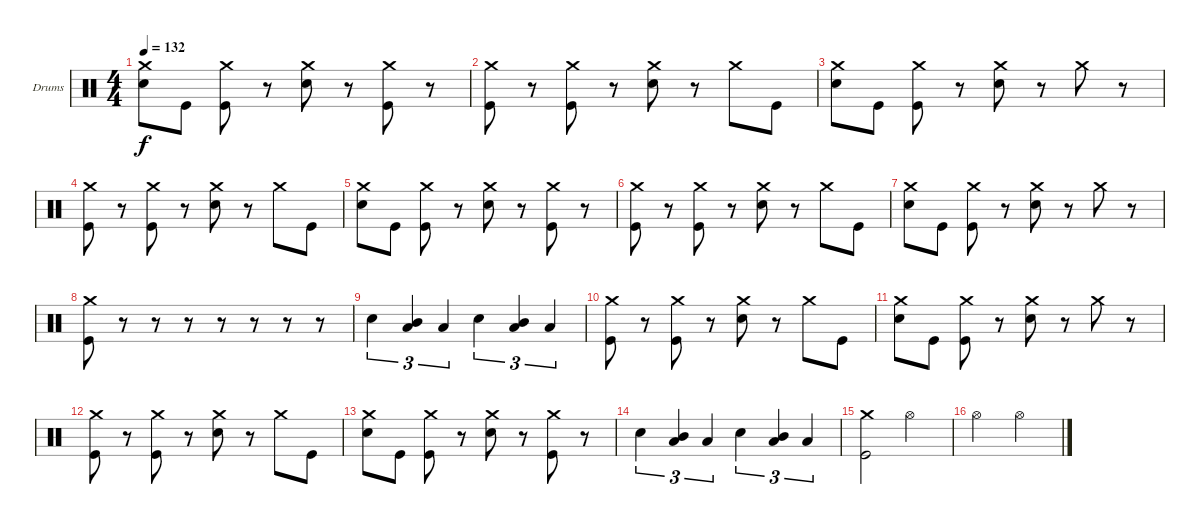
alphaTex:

\bracketExtendMode groupsimilarinstruments
\firstSystemTrackNameOrientation horizontal
\otherSystemsTrackNameOrientation horizontal
\track ("Drumkit" "Drums") {instrument percussion}
\staff {score}
\articulation defaults
\ts (4 4)
\tempo 132
\clef neutral
\ks c
("Snare (hit) 2" "Crash medium (hit)").8{dy f} "Kick (hit)".8 ("Kick (hit)" "Crash medium (hit)").8 r.8 ("Snare (hit) 2" "Crash medium (hit)").8 r.8 ("Kick (hit)" "Crash medium (hit)").8 r.8 |
("Kick (hit)" "Crash medium (hit)").8 r.8 ("Kick (hit)" "Crash medium (hit)").8 r.8 ("Snare (hit) 2" "Crash medium (hit)").8 r.8 "Crash medium (hit)".8 "Kick (hit)".8 |
("Snare (hit) 2" "Crash medium (hit)").8 "Kick (hit)".8 ("Kick (hit)" "Crash medium (hit)").8 r.8 ("Snare (hit) 2" "Crash medium (hit)").8 r.8 "Crash medium (hit)".8 r.8 |
("Kick (hit)" "Crash medium (hit)").8 r.8 ("Kick (hit)" "Crash medium (hit)").8 r.8 ("Snare (hit) 2" "Crash medium (hit)").8 r.8 "Crash medium (hit)".8 "Kick (hit)".8 |
("Snare (hit) 2" "Crash medium (hit)").8 "Kick (hit)".8 ("Kick (hit)" "Crash medium (hit)").8 r.8 ("Snare (hit) 2" "Crash medium (hit)").8 r.8 ("Kick (hit)" "Crash medium (hit)").8 r.8 |
("Kick (hit)" "Crash medium (hit)").8 r.8 ("Kick (hit)" "Crash medium (hit)").8 r.8 ("Snare (hit) 2" "Crash medium (hit)").8 r.8 "Crash medium (hit)".8 "Kick (hit)".8 |
("Snare (hit) 2" "Crash medium (hit)").8 "Kick (hit)".8 ("Kick (hit)" "Crash medium (hit)").8 r.8 ("Snare (hit) 2" "Crash medium (hit)").8 r.8 "Crash medium (hit)".8 r.8 |
("Kick (hit)" "Crash medium (hit)").8 r.8 r.8 r.8 r.8 r.8 r.8 r.8 |
"Snare (hit) 2".4{tu (3 2)} ("Low Tom (hit)" "Mid Tom (hit)").4{tu (3 2)} "Low Tom (hit)".4{tu (3 2)} "Snare (hit) 2".4{tu (3 2)} ("Low Tom (hit)" "Mid Tom (hit)").4{tu (3 2)} "Low Tom (hit)".4{tu (3 2)} |
("Kick (hit)" "Crash medium (hit)").8 r.8 ("Kick (hit)" "Crash medium (hit)").8 r.8 ("Snare (hit) 2" "Crash medium (hit)").8 r.8 "Crash medium (hit)".8 "Kick (hit)".8 |
("Snare (hit) 2" "Crash medium (hit)").8 "Kick (hit)".8 ("Kick (hit)" "Crash medium (hit)").8 r.8 ("Snare (hit) 2" "Crash medium (hit)").8 r.8 "Crash medium (hit)".8 r.8 |
("Kick (hit)" "Crash medium (hit)").8 r.8 ("Kick (hit)" "Crash medium (hit)").8 r.8 ("Snare (hit) 2" "Crash medium (hit)").8 r.8 "Crash medium (hit)".8 "Kick (hit)".8 |
("Snare (hit) 2" "Crash medium (hit)").8 "Kick (hit)".8 ("Kick (hit)" "Crash medium (hit)").8 r.8 ("Snare (hit) 2" "Crash medium (hit)").8 r.8 ("Kick (hit)" "Crash medium (hit)").8 r.8 |
"Snare (hit) 2".4{tu (3 2)} ("Low Tom (hit)" "Mid Tom (hit)").4{tu (3 2)} "Low Tom (hit)".4{tu (3 2)} "Snare (hit) 2".4{tu (3 2)} ("Low Tom (hit)" "Mid Tom (hit)").4{tu (3 2)} "Low Tom (hit)".4{tu (3 2)} |
("Kick (hit)" "Crash medium (hit)").2 "Hi-Hat (open)".2 |
"Hi-Hat (open)".2 "Hi-Hat (open)".2
